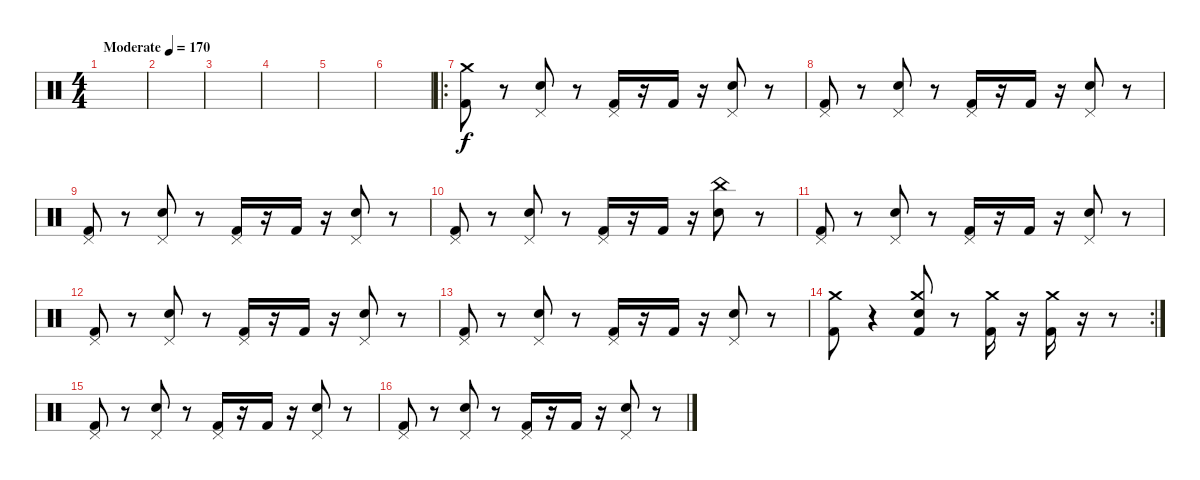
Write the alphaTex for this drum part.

\track "" {instrument percussion}
\staff {score}
\articulation defaults
\ts (4 4)
\tempo (170 "Moderate")
\clef neutral
\ks c
|
|
|
|
|
|
\ro
("Kick (hit) 2" "Crash medium (hit)").8 r.8 ("Electric Snare (hit)" "Pedal Hi-Hat (hit)").8 r.8 ("Kick (hit) 2" "Pedal Hi-Hat (hit)").16 r.16 "Kick (hit) 2".16 r.16 ("Electric Snare (hit)" "Pedal Hi-Hat (hit)").8 r.8 |
("Kick (hit) 2" "Pedal Hi-Hat (hit)").8 r.8 ("Electric Snare (hit)" "Pedal Hi-Hat (hit)").8 r.8 ("Kick (hit) 2" "Pedal Hi-Hat (hit)").16 r.16 "Kick (hit) 2".16 r.16 ("Electric Snare (hit)" "Pedal Hi-Hat (hit)").8 r.8 |
("Kick (hit) 2" "Pedal Hi-Hat (hit)").8 r.8 ("Electric Snare (hit)" "Pedal Hi-Hat (hit)").8 r.8 ("Kick (hit) 2" "Pedal Hi-Hat (hit)").16 r.16 "Kick (hit) 2".16 r.16 ("Electric Snare (hit)" "Pedal Hi-Hat (hit)").8 r.8 |
("Kick (hit) 2" "Pedal Hi-Hat (hit)").8 r.8 ("Electric Snare (hit)" "Pedal Hi-Hat (hit)").8 r.8 ("Kick (hit) 2" "Pedal Hi-Hat (hit)").16 r.16 "Kick (hit) 2".16 r.16 ("Electric Snare (hit)" "China (hit)").8 r.8 |
("Kick (hit) 2" "Pedal Hi-Hat (hit)").8 r.8 ("Electric Snare (hit)" "Pedal Hi-Hat (hit)").8 r.8 ("Kick (hit) 2" "Pedal Hi-Hat (hit)").16 r.16 "Kick (hit) 2".16 r.16 ("Electric Snare (hit)" "Pedal Hi-Hat (hit)").8 r.8 |
("Kick (hit) 2" "Pedal Hi-Hat (hit)").8 r.8 ("Electric Snare (hit)" "Pedal Hi-Hat (hit)").8 r.8 ("Kick (hit) 2" "Pedal Hi-Hat (hit)").16 r.16 "Kick (hit) 2".16 r.16 ("Electric Snare (hit)" "Pedal Hi-Hat (hit)").8 r.8 |
("Kick (hit) 2" "Pedal Hi-Hat (hit)").8 r.8 ("Electric Snare (hit)" "Pedal Hi-Hat (hit)").8 r.8 ("Kick (hit) 2" "Pedal Hi-Hat (hit)").16 r.16 "Kick (hit) 2".16 r.16 ("Electric Snare (hit)" "Pedal Hi-Hat (hit)").8 r.8 |
\rc 2
("Kick (hit) 2" "Crash medium (hit)").8 r.4 ("Electric Snare (hit)" "Crash medium (hit)" "Kick (hit) 2").8 r.8 ("Kick (hit) 2" "Crash medium (hit)").16 r.16 ("Kick (hit) 2" "Crash medium (hit)").16 r.16 r.8 |
("Kick (hit) 2" "Pedal Hi-Hat (hit)").8 r.8 ("Electric Snare (hit)" "Pedal Hi-Hat (hit)").8 r.8 ("Kick (hit) 2" "Pedal Hi-Hat (hit)").16 r.16 "Kick (hit) 2".16 r.16 ("Electric Snare (hit)" "Pedal Hi-Hat (hit)").8 r.8 |
("Kick (hit) 2" "Pedal Hi-Hat (hit)").8 r.8 ("Electric Snare (hit)" "Pedal Hi-Hat (hit)").8 r.8 ("Kick (hit) 2" "Pedal Hi-Hat (hit)").16 r.16 "Kick (hit) 2".16 r.16 ("Electric Snare (hit)" "Pedal Hi-Hat (hit)").8 r.8
